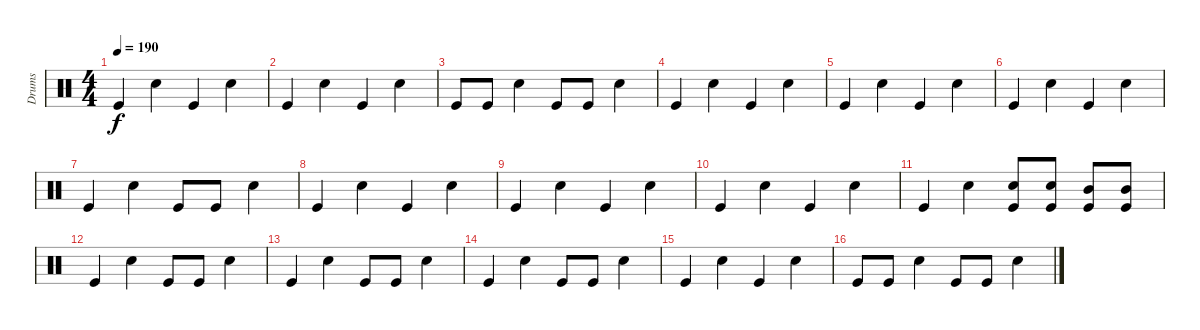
\track ("Drums" "Drums") {instrument percussion}
\staff {score}
\articulation defaults
\ts (4 4)
\tempo 190
\clef neutral
\ks c "Kick (hit)".4{dy f} "Snare (hit) 2".4 "Kick (hit)".4 "Snare (hit) 2".4
|
"Kick (hit)".4 "Snare (hit) 2".4 "Kick (hit)".4 "Snare (hit) 2".4 |
"Kick (hit)".8 "Kick (hit)".8 "Snare (hit) 2".4 "Kick (hit)".8 "Kick (hit)".8 "Snare (hit) 2".4 |
"Kick (hit)".4 "Snare (hit) 2".4 "Kick (hit)".4 "Snare (hit) 2".4 |
"Kick (hit)".4 "Snare (hit) 2".4 "Kick (hit)".4 "Snare (hit) 2".4 |
"Kick (hit)".4 "Snare (hit) 2".4 "Kick (hit)".4 "Snare (hit) 2".4 |
"Kick (hit)".4 "Snare (hit) 2".4 "Kick (hit)".8 "Kick (hit)".8 "Snare (hit) 2".4 |
"Kick (hit)".4 "Snare (hit) 2".4 "Kick (hit)".4 "Snare (hit) 2".4 |
"Kick (hit)".4 "Snare (hit) 2".4 "Kick (hit)".4 "Snare (hit) 2".4 |
"Kick (hit)".4 "Snare (hit) 2".4 "Kick (hit)".4 "Snare (hit) 2".4 |
"Kick (hit)".4 "Snare (hit) 2".4 ("Snare (hit) 2" "Kick (hit)").8 ("Snare (hit) 2" "Kick (hit)").8 ("Mid Tom (hit)" "Kick (hit)").8 ("Mid Tom (hit)" "Kick (hit)").8 |
"Kick (hit)".4 "Snare (hit) 2".4 "Kick (hit)".8 "Kick (hit)".8 "Snare (hit) 2".4 |
"Kick (hit)".4 "Snare (hit) 2".4 "Kick (hit)".8 "Kick (hit)".8 "Snare (hit) 2".4 |
"Kick (hit)".4 "Snare (hit) 2".4 "Kick (hit)".8 "Kick (hit)".8 "Snare (hit) 2".4 |
"Kick (hit)".4 "Snare (hit) 2".4 "Kick (hit)".4 "Snare (hit) 2".4 |
"Kick (hit)".8 "Kick (hit)".8 "Snare (hit) 2".4 "Kick (hit)".8 "Kick (hit)".8 "Snare (hit) 2".4
